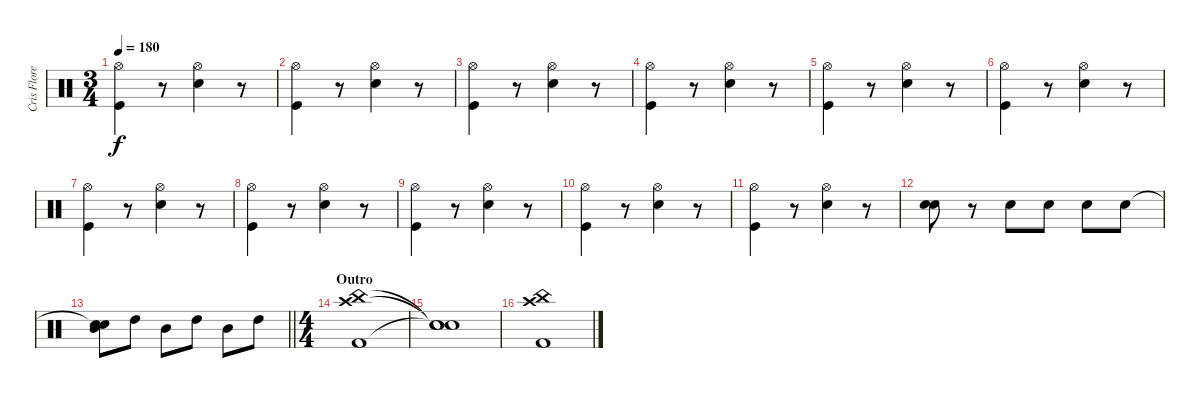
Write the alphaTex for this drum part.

\track ("Cris Flores" "Cris Flore") {instrument percussion}
\staff {score}
\articulation defaults
\ts (3 4)
\tempo 180
\clef neutral
\ks c
("Kick (hit)" "Hi-Hat (open)").4{dy f} r.8 ("Snare (hit) 2" "Hi-Hat (open)").4 r.8 |
("Kick (hit)" "Hi-Hat (open)").4 r.8 ("Snare (hit) 2" "Hi-Hat (open)").4 r.8 |
("Kick (hit)" "Hi-Hat (open)").4 r.8 ("Snare (hit) 2" "Hi-Hat (open)").4 r.8 |
("Kick (hit)" "Hi-Hat (open)").4 r.8 ("Snare (hit) 2" "Hi-Hat (open)").4 r.8 |
("Kick (hit)" "Hi-Hat (open)").4 r.8 ("Snare (hit) 2" "Hi-Hat (open)").4 r.8 |
("Kick (hit)" "Hi-Hat (open)").4 r.8 ("Snare (hit) 2" "Hi-Hat (open)").4 r.8 |
("Kick (hit)" "Hi-Hat (open)").4 r.8 ("Snare (hit) 2" "Hi-Hat (open)").4 r.8 |
("Kick (hit)" "Hi-Hat (open)").4 r.8 ("Snare (hit) 2" "Hi-Hat (open)").4 r.8 |
("Kick (hit)" "Hi-Hat (open)").4 r.8 ("Snare (hit) 2" "Hi-Hat (open)").4 r.8 |
("Kick (hit)" "Hi-Hat (open)").4 r.8 ("Snare (hit) 2" "Hi-Hat (open)").4 r.8 |
("Kick (hit)" "Hi-Hat (open)").4 r.8 ("Snare (hit) 2" "Hi-Hat (open)").4 r.8 |
("Electric Snare (hit)" "Snare (hit) 2").8 r.8 "Snare (hit) 2".8 "Snare (hit) 2".8 "Snare (hit) 2".8 "Snare (hit) 2".8 |
\barLineRight lightlight
("Snare (hit)"{t} "Mid Tom (hit)" "Snare (hit)").8 "High Tom (hit)".8 "Mid Tom (hit)".8 "High Tom (hit)".8 "Mid Tom (hit)".8 "High Tom (hit)".8 |
\ts (4 4)
\section ("" "Outro")
("China (hit)" "Kick (hit) 2" "Crash high (hit)").1 |
("Snare (hit)"{t} "Snare (hit)"{t} "Snare (hit)"{t}).1 |
("China (hit)" "Kick (hit) 2" "Crash high (hit)").1
